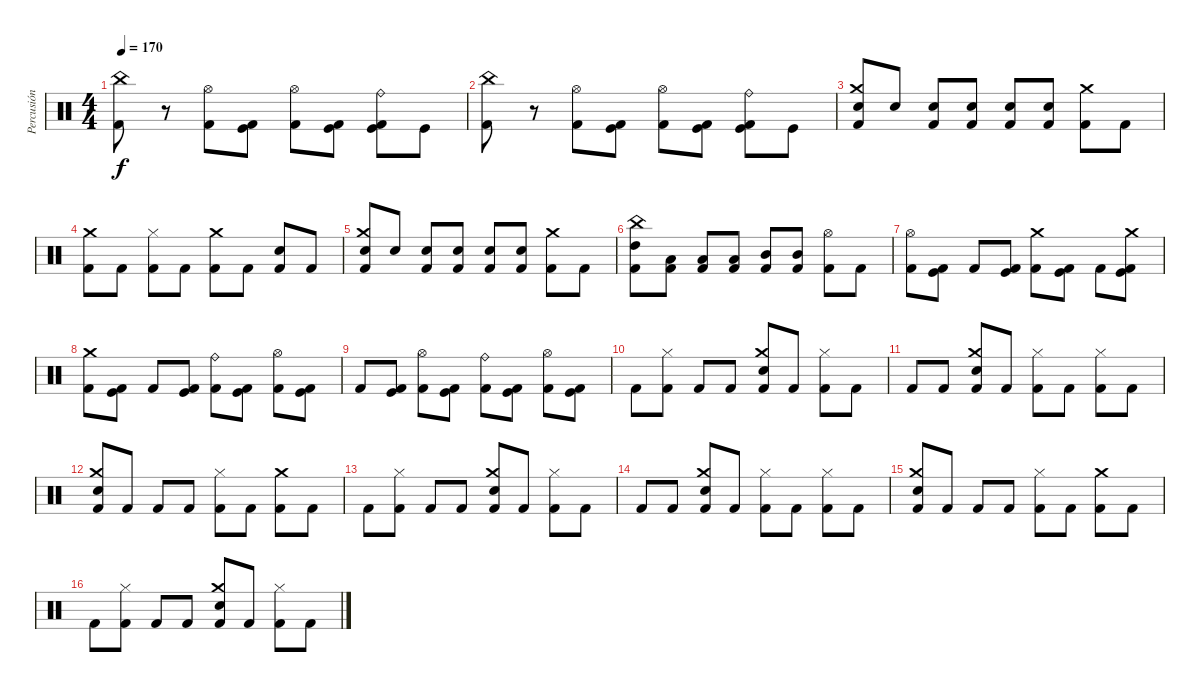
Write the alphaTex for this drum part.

\track ("Percusión" "Percusión") {instrument percussion}
\staff {score}
\articulation defaults
\ts (4 4)
\tempo 170
\clef neutral
\ks c
("China (hit)" "Kick (hit) 2").8{dy f} r.8 ("Hi-Hat (open)" "Kick (hit) 2").8 ("Kick (hit)" "Kick (hit) 2").8 ("Hi-Hat (open)" "Kick (hit) 2").8 ("Kick (hit)" "Kick (hit) 2").8 ("Ride (bell)" "Kick (hit)" "Kick (hit) 2").8 "Kick (hit)".8 |
("China (hit)" "Kick (hit) 2").8 r.8 ("Hi-Hat (open)" "Kick (hit) 2").8 ("Kick (hit)" "Kick (hit) 2").8 ("Hi-Hat (open)" "Kick (hit) 2").8 ("Kick (hit)" "Kick (hit) 2").8 ("Ride (bell)" "Kick (hit)" "Kick (hit) 2").8 "Kick (hit)".8 |
("Crash medium (hit)" "Snare (hit) 2" "Kick (hit) 2").8 "Snare (hit) 2".8 ("Snare (hit) 2" "Kick (hit) 2").8 ("Snare (hit) 2" "Kick (hit) 2").8 ("Snare (hit) 2" "Kick (hit) 2").8 ("Snare (hit) 2" "Kick (hit) 2").8 ("Crash medium (hit)" "Kick (hit) 2").8 "Kick (hit) 2".8 |
("Crash medium (hit)" "Kick (hit) 2").8 "Kick (hit) 2".8 ("Hi-Hat (closed)" "Kick (hit) 2").8 "Kick (hit) 2".8 ("Crash medium (hit)" "Kick (hit) 2").8 "Kick (hit) 2".8 ("Snare (hit) 2" "Kick (hit) 2").8 "Kick (hit) 2".8 |
("Crash medium (hit)" "Snare (hit) 2" "Kick (hit) 2").8 "Snare (hit) 2".8 ("Snare (hit) 2" "Kick (hit) 2").8 ("Snare (hit) 2" "Kick (hit) 2").8 ("Snare (hit) 2" "Kick (hit) 2").8 ("Snare (hit) 2" "Kick (hit) 2").8 ("Crash medium (hit)" "Kick (hit) 2").8 "Kick (hit) 2".8 |
("China (hit)" "High Tom (hit)" "Kick (hit) 2").8 ("Low Tom (hit)" "Kick (hit) 2").8 ("Low Tom (hit)" "Kick (hit) 2").8 ("Low Tom (hit)" "Kick (hit) 2").8 ("Mid Tom (hit)" "Kick (hit) 2").8 ("Mid Tom (hit)" "Kick (hit) 2").8 ("Hi-Hat (open)" "Kick (hit) 2").8 "Kick (hit) 2".8 |
("Hi-Hat (open)" "Kick (hit) 2").8 ("Kick (hit)" "Kick (hit) 2").8 "Kick (hit) 2".8 ("Kick (hit)" "Kick (hit) 2").8 ("Crash medium (hit)" "Kick (hit) 2").8 ("Kick (hit)" "Kick (hit) 2").8 "Kick (hit) 2".8 ("Crash medium (hit)" "Kick (hit)" "Kick (hit) 2").8 |
("Crash medium (hit)" "Kick (hit) 2").8 ("Kick (hit)" "Kick (hit) 2").8 "Kick (hit) 2".8 ("Kick (hit)" "Kick (hit) 2").8 ("Ride (bell)" "Kick (hit) 2").8 ("Kick (hit)" "Kick (hit) 2").8 ("Hi-Hat (open)" "Kick (hit) 2").8 ("Kick (hit)" "Kick (hit) 2").8 |
"Kick (hit) 2".8 ("Kick (hit)" "Kick (hit) 2").8 ("Hi-Hat (open)" "Kick (hit) 2").8 ("Kick (hit)" "Kick (hit) 2").8 ("Ride (bell)" "Kick (hit) 2").8 ("Kick (hit)" "Kick (hit) 2").8 ("Hi-Hat (open)" "Kick (hit) 2").8 ("Kick (hit)" "Kick (hit) 2").8 |
"Kick (hit) 2".8 ("Hi-Hat (closed)" "Kick (hit) 2").8 "Kick (hit) 2".8 "Kick (hit) 2".8 ("Snare (hit) 2" "Crash medium (hit)" "Kick (hit) 2").8 "Kick (hit) 2".8 ("Hi-Hat (closed)" "Kick (hit) 2").8 "Kick (hit) 2".8 |
"Kick (hit) 2".8 "Kick (hit) 2".8 ("Snare (hit) 2" "Crash medium (hit)" "Kick (hit) 2").8 "Kick (hit) 2".8 ("Hi-Hat (closed)" "Kick (hit) 2").8 "Kick (hit) 2".8 ("Hi-Hat (closed)" "Kick (hit) 2").8 "Kick (hit) 2".8 |
("Snare (hit) 2" "Crash medium (hit)" "Kick (hit) 2").8 "Kick (hit) 2".8 "Kick (hit) 2".8 "Kick (hit) 2".8 ("Hi-Hat (closed)" "Kick (hit) 2").8 "Kick (hit) 2".8 ("Crash medium (hit)" "Kick (hit) 2").8 "Kick (hit) 2".8 |
"Kick (hit) 2".8 ("Hi-Hat (closed)" "Kick (hit) 2").8 "Kick (hit) 2".8 "Kick (hit) 2".8 ("Snare (hit) 2" "Crash medium (hit)" "Kick (hit) 2").8 "Kick (hit) 2".8 ("Hi-Hat (closed)" "Kick (hit) 2").8 "Kick (hit) 2".8 |
"Kick (hit) 2".8 "Kick (hit) 2".8 ("Snare (hit) 2" "Crash medium (hit)" "Kick (hit) 2").8 "Kick (hit) 2".8 ("Hi-Hat (closed)" "Kick (hit) 2").8 "Kick (hit) 2".8 ("Hi-Hat (closed)" "Kick (hit) 2").8 "Kick (hit) 2".8 |
("Snare (hit) 2" "Crash medium (hit)" "Kick (hit) 2").8 "Kick (hit) 2".8 "Kick (hit) 2".8 "Kick (hit) 2".8 ("Hi-Hat (closed)" "Kick (hit) 2").8 "Kick (hit) 2".8 ("Crash medium (hit)" "Kick (hit) 2").8 "Kick (hit) 2".8 |
"Kick (hit) 2".8 ("Hi-Hat (closed)" "Kick (hit) 2").8 "Kick (hit) 2".8 "Kick (hit) 2".8 ("Snare (hit) 2" "Crash medium (hit)" "Kick (hit) 2").8 "Kick (hit) 2".8 ("Hi-Hat (closed)" "Kick (hit) 2").8 "Kick (hit) 2".8
